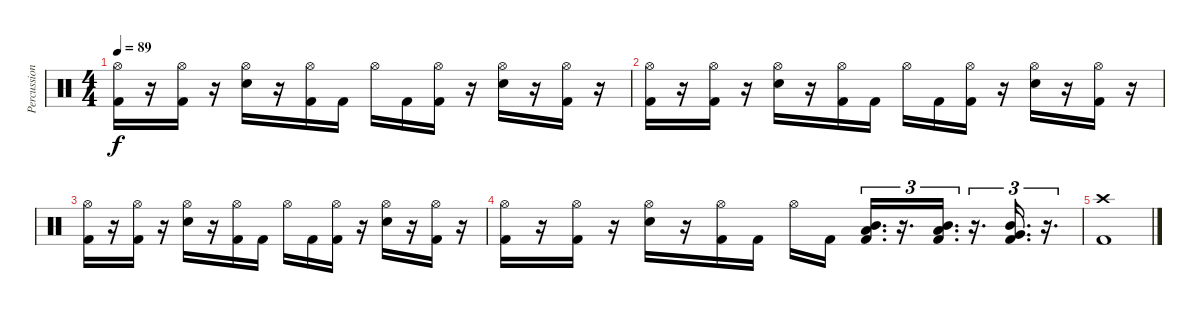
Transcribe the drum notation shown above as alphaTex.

\track ("Percussion" "Percussion") {instrument percussion}
\staff {score}
\articulation defaults
\ts (4 4)
\tempo 89
\clef neutral
\ks c
("Hi-Hat (open)" "Kick (hit) 2").16{dy f} r.16 ("Hi-Hat (open)" "Kick (hit) 2").16 r.16 ("Hi-Hat (open)" "Electric Snare (hit)").16 r.16 ("Hi-Hat (open)" "Kick (hit) 2").16 "Kick (hit) 2".16 "Hi-Hat (open)".16 "Kick (hit) 2".16 ("Hi-Hat (open)" "Kick (hit) 2").16 r.16 ("Hi-Hat (open)" "Electric Snare (hit)").16 r.16 ("Hi-Hat (open)" "Kick (hit) 2").16 r.16 |
("Hi-Hat (open)" "Kick (hit) 2").16 r.16 ("Hi-Hat (open)" "Kick (hit) 2").16 r.16 ("Hi-Hat (open)" "Electric Snare (hit)").16 r.16 ("Hi-Hat (open)" "Kick (hit) 2").16 "Kick (hit) 2".16 "Hi-Hat (open)".16 "Kick (hit) 2".16 ("Hi-Hat (open)" "Kick (hit) 2").16 r.16 ("Hi-Hat (open)" "Electric Snare (hit)").16 r.16 ("Hi-Hat (open)" "Kick (hit) 2").16 r.16 |
("Hi-Hat (open)" "Kick (hit) 2").16 r.16 ("Hi-Hat (open)" "Kick (hit) 2").16 r.16 ("Hi-Hat (open)" "Electric Snare (hit)").16 r.16 ("Hi-Hat (open)" "Kick (hit) 2").16 "Kick (hit) 2".16 "Hi-Hat (open)".16 "Kick (hit) 2".16 ("Hi-Hat (open)" "Kick (hit) 2").16 r.16 ("Hi-Hat (open)" "Electric Snare (hit)").16 r.16 ("Hi-Hat (open)" "Kick (hit) 2").16 r.16 |
("Hi-Hat (open)" "Kick (hit) 2").16 r.16 ("Hi-Hat (open)" "Kick (hit) 2").16 r.16 ("Hi-Hat (open)" "Electric Snare (hit)").16 r.16 ("Hi-Hat (open)" "Kick (hit) 2").16 "Kick (hit) 2".16 "Hi-Hat (open)".16 "Kick (hit) 2".16{beam splitsecondary} ("Mid Tom (hit)" "Low Tom (hit)" "Kick (hit) 2").16{d tu (3 2)} r.16{d tu (3 2)} ("Mid Tom (hit)" "Low Tom (hit)" "Kick (hit) 2").16{d tu (3 2)} r.16{d tu (3 2)} ("Mid Tom (hit)" "Very Low Tom (hit)" "Kick (hit) 2").16{d tu (3 2)} r.16{d tu (3 2)} |
("Crash high (hit)" "Kick (hit) 2").1
